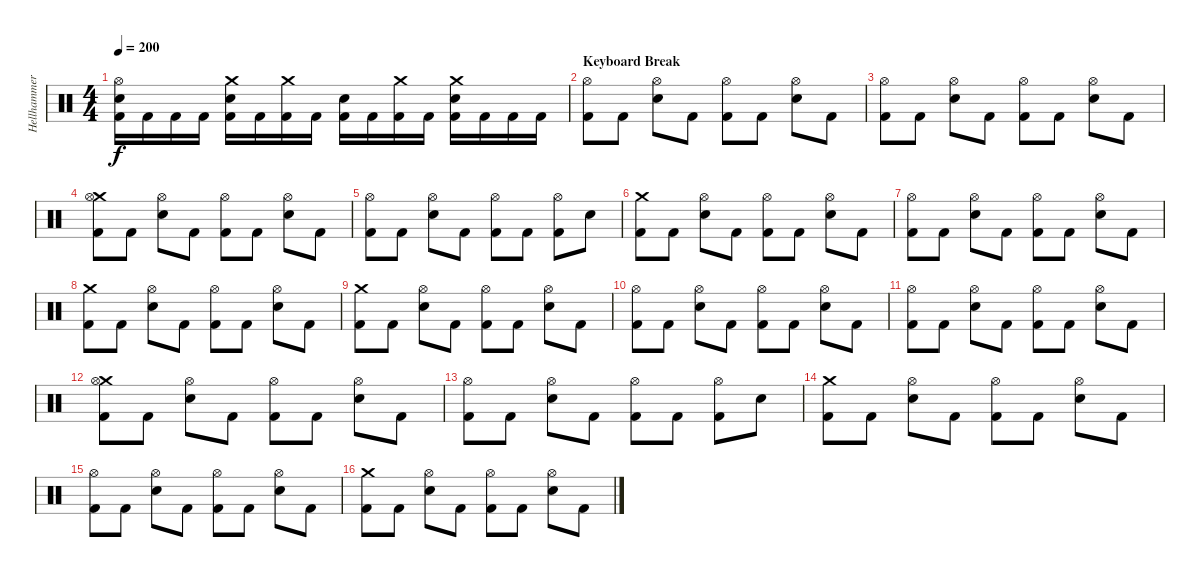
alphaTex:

\track ("Hellhammer" "Hellhammer") {instrument percussion}
\staff {score}
\articulation defaults
\ts (4 4)
\tempo 200
\clef neutral
\ks c
("Hi-Hat (open)" "Electric Snare (hit)" "Kick (hit) 2").16{dy f} "Kick (hit) 2".16 "Kick (hit) 2".16 "Kick (hit) 2".16 ("Crash medium (hit)" "Electric Snare (hit)" "Kick (hit) 2").16 "Kick (hit) 2".16 ("Crash medium (hit)" "Kick (hit) 2").16 "Kick (hit) 2".16 ("Electric Snare (hit)" "Kick (hit) 2").16 "Kick (hit) 2".16 ("Crash medium (hit)" "Kick (hit) 2").16 "Kick (hit) 2".16 ("Crash medium (hit)" "Electric Snare (hit)" "Kick (hit) 2").16 "Kick (hit) 2".16 "Kick (hit) 2".16 "Kick (hit) 2".16 |
\section ("" "Keyboard Break")
("Hi-Hat (open)" "Kick (hit) 2").8 "Kick (hit) 2".8 ("Hi-Hat (open)" "Electric Snare (hit)").8 "Kick (hit) 2".8 ("Hi-Hat (open)" "Kick (hit) 2").8 "Kick (hit) 2".8 ("Hi-Hat (open)" "Electric Snare (hit)").8 "Kick (hit) 2".8 |
("Hi-Hat (open)" "Kick (hit) 2").8 "Kick (hit) 2".8 ("Hi-Hat (open)" "Electric Snare (hit)").8 "Kick (hit) 2".8 ("Hi-Hat (open)" "Kick (hit) 2").8 "Kick (hit) 2".8 ("Hi-Hat (open)" "Electric Snare (hit)").8 "Kick (hit) 2".8 |
("Crash medium (hit)" "Hi-Hat (open)" "Kick (hit) 2").8 "Kick (hit) 2".8 ("Hi-Hat (open)" "Electric Snare (hit)").8 "Kick (hit) 2".8 ("Hi-Hat (open)" "Kick (hit) 2").8 "Kick (hit) 2".8 ("Hi-Hat (open)" "Electric Snare (hit)").8 "Kick (hit) 2".8 |
("Hi-Hat (open)" "Kick (hit) 2").8 "Kick (hit) 2".8 ("Hi-Hat (open)" "Electric Snare (hit)").8 "Kick (hit) 2".8 ("Hi-Hat (open)" "Kick (hit) 2").8 "Kick (hit) 2".8 ("Hi-Hat (open)" "Kick (hit) 2").8 "Electric Snare (hit)".8 |
("Crash medium (hit)" "Kick (hit) 2").8 "Kick (hit) 2".8 ("Hi-Hat (open)" "Electric Snare (hit)").8 "Kick (hit) 2".8 ("Hi-Hat (open)" "Kick (hit) 2").8 "Kick (hit) 2".8 ("Hi-Hat (open)" "Electric Snare (hit)").8 "Kick (hit) 2".8 |
("Hi-Hat (open)" "Kick (hit) 2").8 "Kick (hit) 2".8 ("Hi-Hat (open)" "Electric Snare (hit)").8 "Kick (hit) 2".8 ("Hi-Hat (open)" "Kick (hit) 2").8 "Kick (hit) 2".8 ("Hi-Hat (open)" "Electric Snare (hit)").8 "Kick (hit) 2".8 |
("Crash medium (hit)" "Kick (hit) 2").8 "Kick (hit) 2".8 ("Hi-Hat (open)" "Electric Snare (hit)").8 "Kick (hit) 2".8 ("Hi-Hat (open)" "Kick (hit) 2").8 "Kick (hit) 2".8 ("Hi-Hat (open)" "Electric Snare (hit)").8 "Kick (hit) 2".8 |
("Crash medium (hit)" "Kick (hit) 2").8 "Kick (hit) 2".8 ("Hi-Hat (open)" "Electric Snare (hit)").8 "Kick (hit) 2".8 ("Hi-Hat (open)" "Kick (hit) 2").8 "Kick (hit) 2".8 ("Hi-Hat (open)" "Electric Snare (hit)").8 "Kick (hit) 2".8 |
("Hi-Hat (open)" "Kick (hit) 2").8 "Kick (hit) 2".8 ("Hi-Hat (open)" "Electric Snare (hit)").8 "Kick (hit) 2".8 ("Hi-Hat (open)" "Kick (hit) 2").8 "Kick (hit) 2".8 ("Hi-Hat (open)" "Electric Snare (hit)").8 "Kick (hit) 2".8 |
("Hi-Hat (open)" "Kick (hit) 2").8 "Kick (hit) 2".8 ("Hi-Hat (open)" "Electric Snare (hit)").8 "Kick (hit) 2".8 ("Hi-Hat (open)" "Kick (hit) 2").8 "Kick (hit) 2".8 ("Hi-Hat (open)" "Electric Snare (hit)").8 "Kick (hit) 2".8 |
("Crash medium (hit)" "Hi-Hat (open)" "Kick (hit) 2").8 "Kick (hit) 2".8 ("Hi-Hat (open)" "Electric Snare (hit)").8 "Kick (hit) 2".8 ("Hi-Hat (open)" "Kick (hit) 2").8 "Kick (hit) 2".8 ("Hi-Hat (open)" "Electric Snare (hit)").8 "Kick (hit) 2".8 |
("Hi-Hat (open)" "Kick (hit) 2").8 "Kick (hit) 2".8 ("Hi-Hat (open)" "Electric Snare (hit)").8 "Kick (hit) 2".8 ("Hi-Hat (open)" "Kick (hit) 2").8 "Kick (hit) 2".8 ("Hi-Hat (open)" "Kick (hit) 2").8 "Electric Snare (hit)".8 |
("Crash medium (hit)" "Kick (hit) 2").8 "Kick (hit) 2".8 ("Hi-Hat (open)" "Electric Snare (hit)").8 "Kick (hit) 2".8 ("Hi-Hat (open)" "Kick (hit) 2").8 "Kick (hit) 2".8 ("Hi-Hat (open)" "Electric Snare (hit)").8 "Kick (hit) 2".8 |
("Hi-Hat (open)" "Kick (hit) 2").8 "Kick (hit) 2".8 ("Hi-Hat (open)" "Electric Snare (hit)").8 "Kick (hit) 2".8 ("Hi-Hat (open)" "Kick (hit) 2").8 "Kick (hit) 2".8 ("Hi-Hat (open)" "Electric Snare (hit)").8 "Kick (hit) 2".8 |
("Crash medium (hit)" "Kick (hit) 2").8 "Kick (hit) 2".8 ("Hi-Hat (open)" "Electric Snare (hit)").8 "Kick (hit) 2".8 ("Hi-Hat (open)" "Kick (hit) 2").8 "Kick (hit) 2".8 ("Hi-Hat (open)" "Electric Snare (hit)").8 "Kick (hit) 2".8
